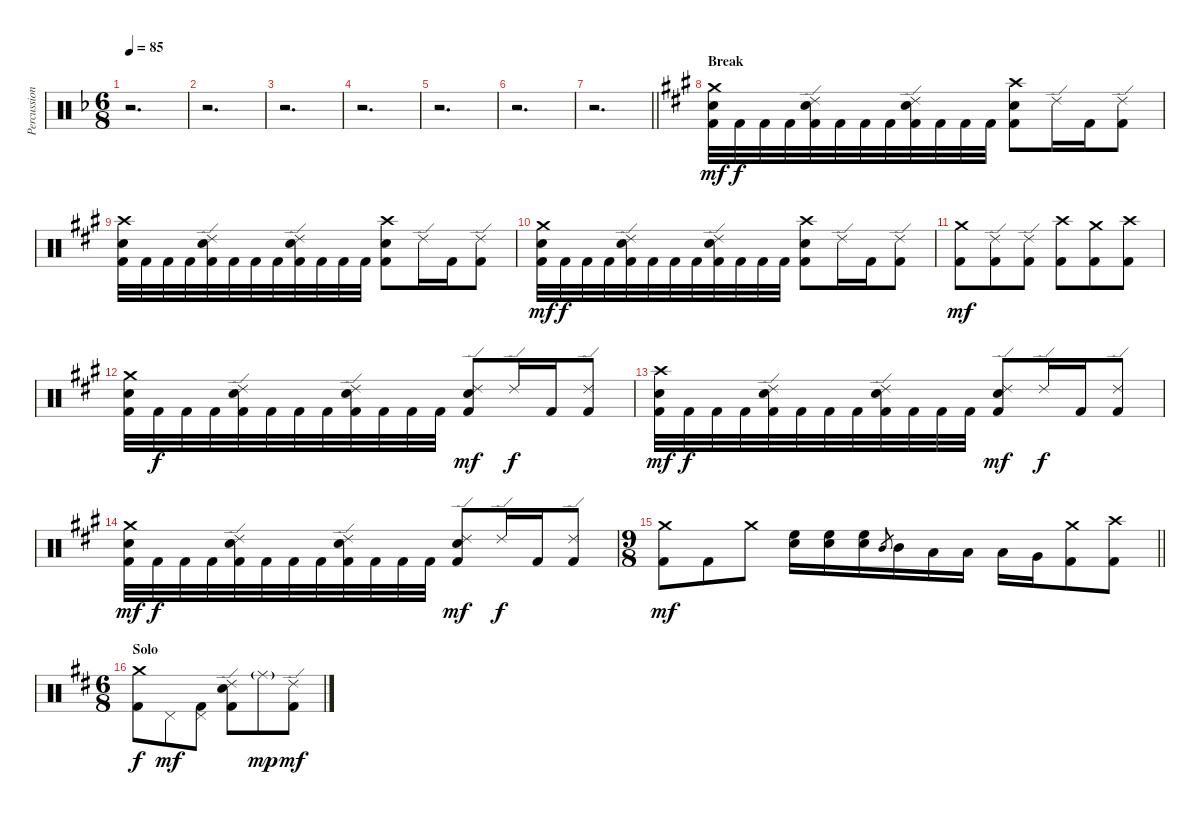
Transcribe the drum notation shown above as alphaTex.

\track ("Percussion (Daniele Carbonera)" "Percussion") {instrument percussion}
\staff {score}
\articulation defaults
\ts (6 8)
\tempo 85
\clef neutral
\ks dminor
r.2{d dy mf} |
r.2{d} |
r.2{d} |
r.2{d} |
r.2{d} |
r.2{d} |
\barLineRight lightlight
r.2{d} |
\section ("" "Break")
\ks f#minor
("Crash medium (hit)" "Electric Snare (hit)" "Kick (hit) 2").32 "Kick (hit) 2".32{dy f} "Kick (hit) 2".32 "Kick (hit) 2".32 ("Ride (edge) 2" "Electric Snare (hit)" "Kick (hit) 2").32 "Kick (hit) 2".32 "Kick (hit) 2".32 "Kick (hit) 2".32 ("Ride (edge) 2" "Electric Snare (hit)" "Kick (hit) 2").32 "Kick (hit) 2".32 "Kick (hit) 2".32 "Kick (hit) 2".32 ("Crash high (hit)" "Electric Snare (hit)" "Kick (hit) 2").8 "Ride (edge) 2".16 "Kick (hit) 2".16 ("Ride (edge) 2" "Kick (hit) 2").8 |
("Crash high (hit)" "Electric Snare (hit)" "Kick (hit) 2").32 "Kick (hit) 2".32 "Kick (hit) 2".32 "Kick (hit) 2".32 ("Ride (edge) 2" "Electric Snare (hit)" "Kick (hit) 2").32 "Kick (hit) 2".32 "Kick (hit) 2".32 "Kick (hit) 2".32 ("Ride (edge) 2" "Electric Snare (hit)" "Kick (hit) 2").32 "Kick (hit) 2".32 "Kick (hit) 2".32 "Kick (hit) 2".32 ("Crash high (hit)" "Electric Snare (hit)" "Kick (hit) 2").8 "Ride (edge) 2".16 "Kick (hit) 2".16 ("Ride (edge) 2" "Kick (hit) 2").8 |
("Crash medium (hit)" "Electric Snare (hit)" "Kick (hit) 2").32{dy mf} "Kick (hit) 2".32{dy f} "Kick (hit) 2".32 "Kick (hit) 2".32 ("Ride (edge) 2" "Electric Snare (hit)" "Kick (hit) 2").32 "Kick (hit) 2".32 "Kick (hit) 2".32 "Kick (hit) 2".32 ("Ride (edge) 2" "Electric Snare (hit)" "Kick (hit) 2").32 "Kick (hit) 2".32 "Kick (hit) 2".32 "Kick (hit) 2".32 ("Crash high (hit)" "Electric Snare (hit)" "Kick (hit) 2").8 "Ride (edge) 2".16 "Kick (hit) 2".16 ("Ride (edge) 2" "Kick (hit) 2").8 |
("Crash medium (hit)" "Kick (hit) 2").8{dy mf} ("Ride (edge) 2" "Kick (hit) 2").8 ("Ride (edge) 2" "Kick (hit) 2").8 ("Crash high (hit)" "Kick (hit) 2").8 ("Crash medium (hit)" "Kick (hit) 2").8 ("Crash high (hit)" "Kick (hit) 2").8 |
("Crash medium (hit)" "Electric Snare (hit)" "Kick (hit) 2").32 "Kick (hit) 2".32{dy f} "Kick (hit) 2".32 "Kick (hit) 2".32 ("Ride (edge) 2" "Electric Snare (hit)" "Kick (hit) 2").32 "Kick (hit) 2".32 "Kick (hit) 2".32 "Kick (hit) 2".32 ("Ride (edge) 2" "Electric Snare (hit)" "Kick (hit) 2").32 "Kick (hit) 2".32 "Kick (hit) 2".32 "Kick (hit) 2".32 ("Ride (edge) 2" "Electric Snare (hit)" "Kick (hit) 2").8{dy mf} "Ride (edge) 2".16{dy f} "Kick (hit) 2".16 ("Ride (edge) 2" "Kick (hit) 2").8 |
("Crash high (hit)" "Electric Snare (hit)" "Kick (hit) 2").32{dy mf} "Kick (hit) 2".32{dy f} "Kick (hit) 2".32 "Kick (hit) 2".32 ("Ride (edge) 2" "Electric Snare (hit)" "Kick (hit) 2").32 "Kick (hit) 2".32 "Kick (hit) 2".32 "Kick (hit) 2".32 ("Ride (edge) 2" "Electric Snare (hit)" "Kick (hit) 2").32 "Kick (hit) 2".32 "Kick (hit) 2".32 "Kick (hit) 2".32 ("Ride (edge) 2" "Electric Snare (hit)" "Kick (hit) 2").8{dy mf} "Ride (edge) 2".16{dy f} "Kick (hit) 2".16 ("Ride (edge) 2" "Kick (hit) 2").8 |
("Crash medium (hit)" "Electric Snare (hit)" "Kick (hit) 2").32{dy mf} "Kick (hit) 2".32{dy f} "Kick (hit) 2".32 "Kick (hit) 2".32 ("Ride (edge) 2" "Electric Snare (hit)" "Kick (hit) 2").32 "Kick (hit) 2".32 "Kick (hit) 2".32 "Kick (hit) 2".32 ("Ride (edge) 2" "Electric Snare (hit)" "Kick (hit) 2").32 "Kick (hit) 2".32 "Kick (hit) 2".32 "Kick (hit) 2".32 ("Ride (edge) 2" "Electric Snare (hit)" "Kick (hit) 2").8{dy mf} "Ride (edge) 2".16{dy f} "Kick (hit) 2".16 ("Ride (edge) 2" "Kick (hit) 2").8 |
\ts (9 8)
\barLineRight lightlight
("Crash medium (hit)" "Kick (hit) 2").8{dy mf} "Kick (hit) 2".8 "Crash medium (hit)".8 ("High Floor Tom (hit)" "Electric Snare (hit)").16 ("High Floor Tom (hit)" "Electric Snare (hit)").16 ("High Floor Tom (hit)" "Electric Snare (hit)").16 "Mid Tom (hit)".8{gr} "Mid Tom (hit)".16 "Low Tom (hit)".16 "Low Tom (hit)".16 "Low Tom (hit)".16 "Very Low Tom (hit)".16 ("Crash medium (hit)" "Kick (hit) 2").8 ("Crash high (hit)" "Kick (hit) 2").8 |
\ts (6 8)
\section ("" "Solo")
\ks bminor
("Crash medium (hit)" "Kick (hit) 2").8{dy f} "Pedal Hi-Hat (hit)".8{dy mf} ("Pedal Hi-Hat (hit)" "Kick (hit) 2").8 ("Ride (edge) 2" "Electric Snare (hit)" "Kick (hit) 2").8 "Ride (middle)"{g}.8{dy mp} ("Ride (edge) 2" "Kick (hit) 2").8{dy mf}
